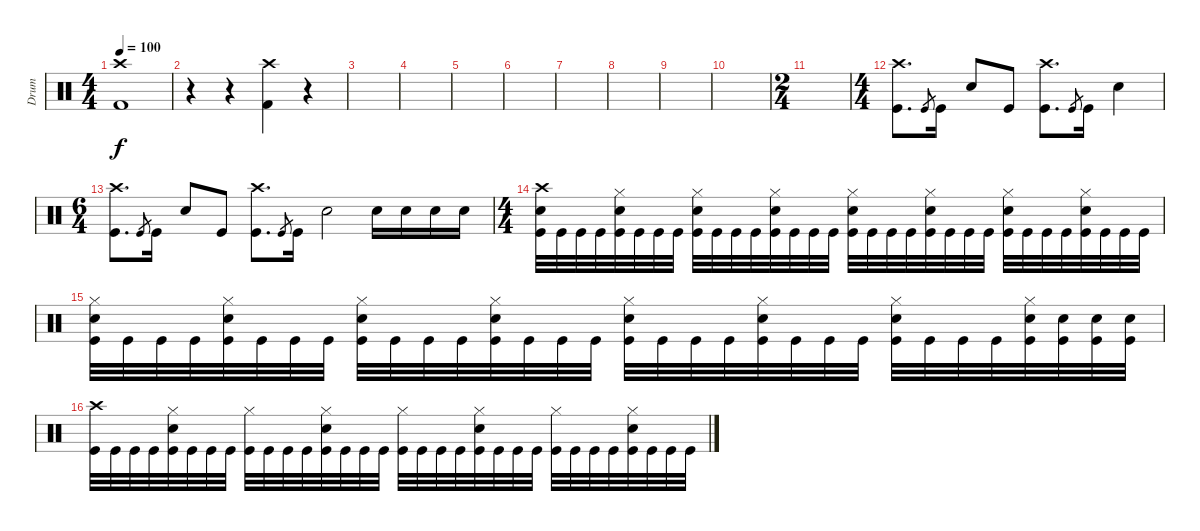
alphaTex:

\track ("Drum" "Drum") {instrument percussion}
\staff {score}
\articulation defaults
\ts (4 4)
\tempo 100
\clef neutral
\ks c
("Kick (hit) 2" "Crash high (hit)").1{dy f} |
r.4 r.4 ("Crash high (hit)" "Kick (hit) 2").4 r.4 |
|
|
|
|
|
|
|
|
\ts (2 4)
|
\ts (4 4)
("Crash high (hit)" "Kick (hit)").8{d} "Kick (hit)".8{gr} "Kick (hit)".16 "Snare (hit) 2".8 "Kick (hit)".8 ("Crash high (hit)" "Kick (hit)").8{d} "Kick (hit)".8{gr} "Kick (hit)".16 "Snare (hit) 2".4 |
\ts (6 4)
("Crash high (hit)" "Kick (hit)").8{d} "Kick (hit)".8{gr} "Kick (hit)".16 "Snare (hit) 2".8 "Kick (hit)".8 ("Crash high (hit)" "Kick (hit)").8{d} "Kick (hit)".8{gr} "Kick (hit)".16 "Snare (hit) 2".2 "Snare (hit) 2".16 "Snare (hit) 2".16 "Snare (hit) 2".16 "Snare (hit) 2".16 |
\ts (4 4)
("Kick (hit)" "Snare (hit) 2" "Crash high (hit)").32 "Kick (hit)".32 "Kick (hit)".32 "Kick (hit)".32 ("Kick (hit)" "Snare (hit) 2" "Hi-Hat (closed)").32 "Kick (hit)".32 "Kick (hit)".32 "Kick (hit)".32 ("Snare (hit) 2" "Kick (hit)" "Hi-Hat (closed)").32 "Kick (hit)".32 "Kick (hit)".32 "Kick (hit)".32 ("Kick (hit)" "Hi-Hat (closed)" "Snare (hit) 2").32 "Kick (hit)".32 "Kick (hit)".32 "Kick (hit)".32 ("Kick (hit)" "Snare (hit) 2" "Hi-Hat (closed)").32 "Kick (hit)".32 "Kick (hit)".32 "Kick (hit)".32 ("Snare (hit) 2" "Kick (hit)" "Hi-Hat (closed)").32 "Kick (hit)".32 "Kick (hit)".32 "Kick (hit)".32 ("Kick (hit)" "Snare (hit) 2" "Hi-Hat (closed)").32 "Kick (hit)".32 "Kick (hit)".32 "Kick (hit)".32 ("Kick (hit)" "Snare (hit) 2" "Hi-Hat (closed)").32 "Kick (hit)".32 "Kick (hit)".32 "Kick (hit)".32 |
("Kick (hit)" "Snare (hit) 2" "Hi-Hat (closed)").32 "Kick (hit)".32 "Kick (hit)".32 "Kick (hit)".32 ("Kick (hit)" "Snare (hit) 2" "Hi-Hat (closed)").32 "Kick (hit)".32 "Kick (hit)".32 "Kick (hit)".32 ("Snare (hit) 2" "Kick (hit)" "Hi-Hat (closed)").32 "Kick (hit)".32 "Kick (hit)".32 "Kick (hit)".32 ("Kick (hit)" "Hi-Hat (closed)" "Snare (hit) 2").32 "Kick (hit)".32 "Kick (hit)".32 "Kick (hit)".32 ("Kick (hit)" "Snare (hit) 2" "Hi-Hat (closed)").32 "Kick (hit)".32 "Kick (hit)".32 "Kick (hit)".32 ("Snare (hit) 2" "Kick (hit)" "Hi-Hat (closed)").32 "Kick (hit)".32 "Kick (hit)".32 "Kick (hit)".32 ("Kick (hit)" "Snare (hit) 2" "Hi-Hat (closed)").32 "Kick (hit)".32 "Kick (hit)".32 "Kick (hit)".32 ("Kick (hit)" "Snare (hit) 2" "Hi-Hat (closed)").32 ("Kick (hit)" "Snare (hit) 2").32 ("Kick (hit)" "Snare (hit) 2").32 ("Kick (hit)" "Snare (hit) 2").32 |
("Kick (hit)" "Crash high (hit)").32 "Kick (hit)".32 "Kick (hit)".32 "Kick (hit)".32 ("Kick (hit)" "Snare (hit) 2" "Hi-Hat (closed)").32 "Kick (hit)".32 "Kick (hit)".32 "Kick (hit)".32 ("Kick (hit)" "Hi-Hat (closed)").32 "Kick (hit)".32 "Kick (hit)".32 "Kick (hit)".32 ("Kick (hit)" "Hi-Hat (closed)" "Snare (hit) 2").32 "Kick (hit)".32 "Kick (hit)".32 "Kick (hit)".32 ("Kick (hit)" "Hi-Hat (closed)").32 "Kick (hit)".32 "Kick (hit)".32 "Kick (hit)".32 ("Snare (hit) 2" "Kick (hit)" "Hi-Hat (closed)").32 "Kick (hit)".32 "Kick (hit)".32 "Kick (hit)".32 ("Kick (hit)" "Hi-Hat (closed)").32 "Kick (hit)".32 "Kick (hit)".32 "Kick (hit)".32 ("Kick (hit)" "Snare (hit) 2" "Hi-Hat (closed)").32 "Kick (hit)".32 "Kick (hit)".32 "Kick (hit)".32
